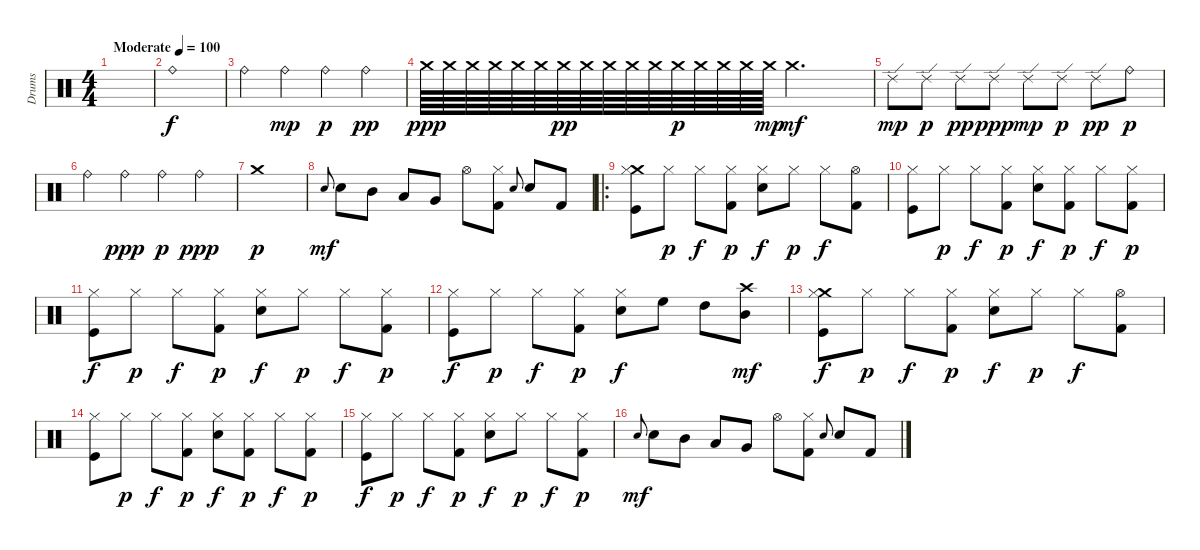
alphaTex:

\track ("Drums" "Drums") {instrument percussion}
\staff {score}
\articulation defaults
\ts (4 4)
\tempo (100 "Moderate")
\clef neutral
\ks c
|
"Ride (bell)".1 |
"Ride (bell)".4 "Ride (bell)".4{dy mp} "Ride (bell)".4{dy p} "Ride (bell)".4{dy pp} |
"Crash medium (hit)".64{dy ppp} "Crash medium (hit)".64 "Crash medium (hit)".64 "Crash medium (hit)".64 "Crash medium (hit)".64 "Crash medium (hit)".64 "Crash medium (hit)".64{dy pp} "Crash medium (hit)".64 "Crash medium (hit)".64 "Crash medium (hit)".64 "Crash medium (hit)".64 "Crash medium (hit)".64{dy p} "Crash medium (hit)".64 "Crash medium (hit)".64 "Crash medium (hit)".64 "Crash medium (hit)".64{dy mp} "Crash medium (hit)".2{d dy mf} |
"Ride (edge) 2".8{dy mp} "Ride (edge) 2".8{dy p} "Ride (edge) 2".8{dy pp} "Ride (edge) 2".8{dy ppp} "Ride (edge) 2".8{dy mp} "Ride (edge) 2".8{dy p} "Ride (edge) 2".8{dy pp} "Ride (bell)".8{dy p} |
"Ride (bell)".4 "Ride (bell)".4{dy ppp} "Ride (bell)".4{dy p} "Ride (bell)".4{dy ppp} |
"Crash medium (hit)".1{dy p} |
"Electric Snare (hit)".8{gr onbeat dy mf} "Electric Snare (hit)".8 "Mid Tom (hit)".8 "Low Tom (hit)".8 "Very Low Tom (hit)".8 "Hi-Hat (open)".8 ("Kick (hit) 2" "Hi-Hat (closed)").8 "Electric Snare (hit)".8{gr onbeat} "Electric Snare (hit)".8 "Kick (hit) 2".8 |
\ro
("Crash medium (hit)" "Hi-Hat (closed)" "Kick (hit)").8 "Hi-Hat (closed)".8{dy p} "Hi-Hat (closed)".8{dy f} ("Hi-Hat (closed)" "Kick (hit) 2").8{dy p} ("Hi-Hat (closed)" "Electric Snare (hit)").8{dy f} "Hi-Hat (closed)".8{dy p} "Hi-Hat (closed)".8{dy f} ("Hi-Hat (open)" "Kick (hit) 2").8 |
("Hi-Hat (closed)" "Kick (hit)").8 "Hi-Hat (closed)".8{dy p} "Hi-Hat (closed)".8{dy f} ("Hi-Hat (closed)" "Kick (hit) 2").8{dy p} ("Hi-Hat (closed)" "Electric Snare (hit)").8{dy f} ("Hi-Hat (closed)" "Kick (hit) 2").8{dy p} "Hi-Hat (closed)".8{dy f} ("Hi-Hat (closed)" "Kick (hit) 2").8{dy p} |
("Hi-Hat (closed)" "Kick (hit)").8{dy f} "Hi-Hat (closed)".8{dy p} "Hi-Hat (closed)".8{dy f} ("Hi-Hat (closed)" "Kick (hit) 2").8{dy p} ("Hi-Hat (closed)" "Electric Snare (hit)").8{dy f} "Hi-Hat (closed)".8{dy p} "Hi-Hat (closed)".8{dy f} ("Hi-Hat (closed)" "Kick (hit) 2").8{dy p} |
("Hi-Hat (closed)" "Kick (hit)").8{dy f} "Hi-Hat (closed)".8{dy p} "Hi-Hat (closed)".8{dy f} ("Hi-Hat (closed)" "Kick (hit) 2").8{dy p} ("Hi-Hat (closed)" "Electric Snare (hit)").8{dy f} "High Floor Tom (hit)".8 "High Tom (hit)".8 ("Crash high (hit)" "Mid Tom (hit)").8{dy mf} |
("Crash medium (hit)" "Hi-Hat (closed)" "Kick (hit)").8{dy f} "Hi-Hat (closed)".8{dy p} "Hi-Hat (closed)".8{dy f} ("Hi-Hat (closed)" "Kick (hit) 2").8{dy p} ("Hi-Hat (closed)" "Electric Snare (hit)").8{dy f} "Hi-Hat (closed)".8{dy p} "Hi-Hat (closed)".8{dy f} ("Hi-Hat (open)" "Kick (hit) 2").8 |
("Hi-Hat (closed)" "Kick (hit)").8 "Hi-Hat (closed)".8{dy p} "Hi-Hat (closed)".8{dy f} ("Hi-Hat (closed)" "Kick (hit) 2").8{dy p} ("Hi-Hat (closed)" "Electric Snare (hit)").8{dy f} ("Hi-Hat (closed)" "Kick (hit) 2").8{dy p} "Hi-Hat (closed)".8{dy f} ("Hi-Hat (closed)" "Kick (hit) 2").8{dy p} |
("Hi-Hat (closed)" "Kick (hit)").8{dy f} "Hi-Hat (closed)".8{dy p} "Hi-Hat (closed)".8{dy f} ("Hi-Hat (closed)" "Kick (hit) 2").8{dy p} ("Hi-Hat (closed)" "Electric Snare (hit)").8{dy f} "Hi-Hat (closed)".8{dy p} "Hi-Hat (closed)".8{dy f} ("Hi-Hat (closed)" "Kick (hit) 2").8{dy p} |
"Electric Snare (hit)".8{gr onbeat dy mf} "Electric Snare (hit)".8 "Mid Tom (hit)".8 "Low Tom (hit)".8 "Very Low Tom (hit)".8 "Hi-Hat (open)".8 ("Kick (hit) 2" "Hi-Hat (closed)").8 "Electric Snare (hit)".8{gr onbeat} "Electric Snare (hit)".8 "Kick (hit) 2".8
